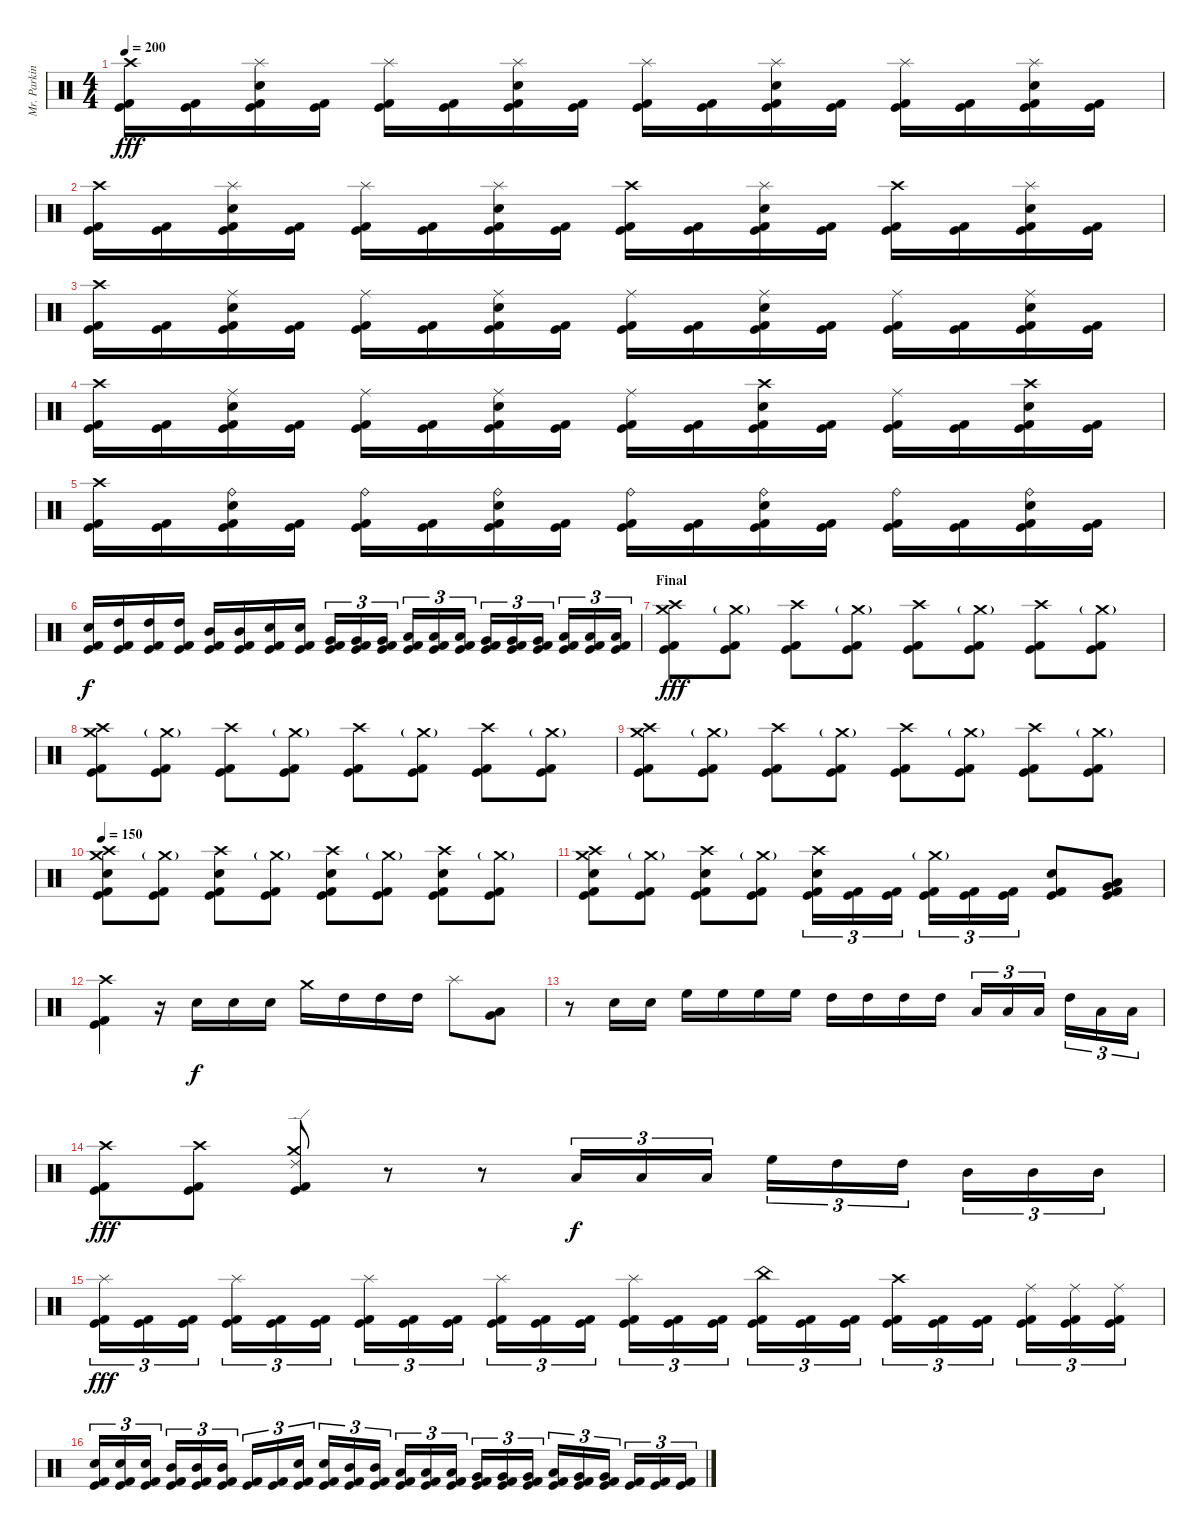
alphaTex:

\track ("Mr. Parkinson" "Mr. Parkin") {instrument percussion}
\staff {score}
\articulation defaults
\ts (4 4)
\tempo 200
\clef neutral
\ks c
("Crash high (hit)" "Kick (hit)" "Kick (hit) 2").16{dy fff} ("Kick (hit)" "Kick (hit) 2").16 ("Splash (hit)" "Electric Snare (hit)" "Kick (hit)" "Kick (hit) 2").16 ("Kick (hit)" "Kick (hit) 2").16 ("Splash (hit)" "Kick (hit)" "Kick (hit) 2").16 ("Kick (hit)" "Kick (hit) 2").16 ("Splash (hit)" "Electric Snare (hit)" "Kick (hit)" "Kick (hit) 2").16 ("Kick (hit)" "Kick (hit) 2").16 ("Splash (hit)" "Kick (hit)" "Kick (hit) 2").16 ("Kick (hit)" "Kick (hit) 2").16 ("Splash (hit)" "Electric Snare (hit)" "Kick (hit)" "Kick (hit) 2").16 ("Kick (hit)" "Kick (hit) 2").16 ("Splash (hit)" "Kick (hit)" "Kick (hit) 2").16 ("Kick (hit)" "Kick (hit) 2").16 ("Splash (hit)" "Electric Snare (hit)" "Kick (hit)" "Kick (hit) 2").16 ("Kick (hit)" "Kick (hit) 2").16 |
("Crash high (hit)" "Kick (hit)" "Kick (hit) 2").16 ("Kick (hit)" "Kick (hit) 2").16 ("Splash (hit)" "Electric Snare (hit)" "Kick (hit)" "Kick (hit) 2").16 ("Kick (hit)" "Kick (hit) 2").16 ("Splash (hit)" "Kick (hit)" "Kick (hit) 2").16 ("Kick (hit)" "Kick (hit) 2").16 ("Splash (hit)" "Electric Snare (hit)" "Kick (hit)" "Kick (hit) 2").16 ("Kick (hit)" "Kick (hit) 2").16 ("Crash high (hit)" "Kick (hit)" "Kick (hit) 2").16 ("Kick (hit)" "Kick (hit) 2").16 ("Splash (hit)" "Electric Snare (hit)" "Kick (hit)" "Kick (hit) 2").16 ("Kick (hit)" "Kick (hit) 2").16 ("Crash high (hit)" "Kick (hit)" "Kick (hit) 2").16 ("Kick (hit)" "Kick (hit) 2").16 ("Splash (hit)" "Electric Snare (hit)" "Kick (hit)" "Kick (hit) 2").16 ("Kick (hit)" "Kick (hit) 2").16 |
("Crash high (hit)" "Kick (hit)" "Kick (hit) 2").16 ("Kick (hit)" "Kick (hit) 2").16 ("Ride (middle)" "Electric Snare (hit)" "Kick (hit)" "Kick (hit) 2").16 ("Kick (hit)" "Kick (hit) 2").16 ("Ride (middle)" "Kick (hit)" "Kick (hit) 2").16 ("Kick (hit)" "Kick (hit) 2").16 ("Ride (middle)" "Electric Snare (hit)" "Kick (hit)" "Kick (hit) 2").16 ("Kick (hit)" "Kick (hit) 2").16 ("Ride (middle)" "Kick (hit)" "Kick (hit) 2").16 ("Kick (hit)" "Kick (hit) 2").16 ("Ride (middle)" "Electric Snare (hit)" "Kick (hit)" "Kick (hit) 2").16 ("Kick (hit)" "Kick (hit) 2").16 ("Ride (middle)" "Kick (hit)" "Kick (hit) 2").16 ("Kick (hit)" "Kick (hit) 2").16 ("Ride (middle)" "Electric Snare (hit)" "Kick (hit)" "Kick (hit) 2").16 ("Kick (hit)" "Kick (hit) 2").16 |
("Crash high (hit)" "Kick (hit)" "Kick (hit) 2").16 ("Kick (hit)" "Kick (hit) 2").16 ("Ride (middle)" "Electric Snare (hit)" "Kick (hit)" "Kick (hit) 2").16 ("Kick (hit)" "Kick (hit) 2").16 ("Ride (middle)" "Kick (hit)" "Kick (hit) 2").16 ("Kick (hit)" "Kick (hit) 2").16 ("Ride (middle)" "Electric Snare (hit)" "Kick (hit)" "Kick (hit) 2").16 ("Kick (hit)" "Kick (hit) 2").16 ("Ride (middle)" "Kick (hit)" "Kick (hit) 2").16 ("Kick (hit)" "Kick (hit) 2").16 ("Crash high (hit)" "Electric Snare (hit)" "Kick (hit)" "Kick (hit) 2").16 ("Kick (hit)" "Kick (hit) 2").16 ("Ride (middle)" "Kick (hit)" "Kick (hit) 2").16 ("Kick (hit)" "Kick (hit) 2").16 ("Crash high (hit)" "Electric Snare (hit)" "Kick (hit)" "Kick (hit) 2").16 ("Kick (hit)" "Kick (hit) 2").16 |
("Crash high (hit)" "Kick (hit)" "Kick (hit) 2").16 ("Kick (hit)" "Kick (hit) 2").16 ("Ride (bell)" "Electric Snare (hit)" "Kick (hit)" "Kick (hit) 2").16 ("Kick (hit)" "Kick (hit) 2").16 ("Ride (bell)" "Kick (hit)" "Kick (hit) 2").16 ("Kick (hit)" "Kick (hit) 2").16 ("Ride (bell)" "Electric Snare (hit)" "Kick (hit)" "Kick (hit) 2").16 ("Kick (hit)" "Kick (hit) 2").16 ("Ride (bell)" "Kick (hit)" "Kick (hit) 2").16 ("Kick (hit)" "Kick (hit) 2").16 ("Ride (bell)" "Electric Snare (hit)" "Kick (hit)" "Kick (hit) 2").16 ("Kick (hit)" "Kick (hit) 2").16 ("Ride (bell)" "Kick (hit)" "Kick (hit) 2").16 ("Kick (hit)" "Kick (hit) 2").16 ("Ride (bell)" "Electric Snare (hit)" "Kick (hit)" "Kick (hit) 2").16 ("Kick (hit)" "Kick (hit) 2").16 |
("Electric Snare (hit)" "Kick (hit)" "Kick (hit) 2").16{dy f} ("High Tom (hit)" "Kick (hit)" "Kick (hit) 2").16 ("High Tom (hit)" "Kick (hit)" "Kick (hit) 2").16 ("High Tom (hit)" "Kick (hit)" "Kick (hit) 2").16 ("Mid Tom (hit)" "Kick (hit)" "Kick (hit) 2").16 ("Mid Tom (hit)" "Kick (hit)" "Kick (hit) 2").16 ("Electric Snare (hit)" "Kick (hit)" "Kick (hit) 2").16 ("Electric Snare (hit)" "Kick (hit)" "Kick (hit) 2").16 ("Very Low Tom (hit)" "Kick (hit)" "Kick (hit) 2").16{tu (3 2)} ("Very Low Tom (hit)" "Kick (hit)" "Kick (hit) 2").16{tu (3 2)} ("Very Low Tom (hit)" "Kick (hit)" "Kick (hit) 2").16{tu (3 2)} ("Low Floor Tom (hit)" "Kick (hit)" "Kick (hit) 2").16{tu (3 2)} ("Low Floor Tom (hit)" "Kick (hit)" "Kick (hit) 2").16{tu (3 2)} ("Low Floor Tom (hit)" "Kick (hit)" "Kick (hit) 2").16{tu (3 2)} ("Very Low Tom (hit)" "Kick (hit)" "Kick (hit) 2").16{tu (3 2)} ("Very Low Tom (hit)" "Kick (hit)" "Kick (hit) 2").16{tu (3 2)} ("Very Low Tom (hit)" "Kick (hit)" "Kick (hit) 2").16{tu (3 2)} ("Low Floor Tom (hit)" "Kick (hit)" "Kick (hit) 2").16{tu (3 2)} ("Low Floor Tom (hit)" "Kick (hit)" "Kick (hit) 2").16{tu (3 2)} ("Low Floor Tom (hit)" "Kick (hit)" "Kick (hit) 2").16{tu (3 2)} |
\section ("" "Final")
("Crash medium (hit)" "Crash high (hit)" "Kick (hit)" "Kick (hit) 2").8{dy fff} ("Crash medium (hit)"{g} "Kick (hit)" "Kick (hit) 2").8 ("Crash high (hit)" "Kick (hit)" "Kick (hit) 2").8 ("Crash medium (hit)"{g} "Kick (hit)" "Kick (hit) 2").8 ("Crash high (hit)" "Kick (hit)" "Kick (hit) 2").8 ("Crash medium (hit)"{g} "Kick (hit)" "Kick (hit) 2").8 ("Crash high (hit)" "Kick (hit)" "Kick (hit) 2").8 ("Crash medium (hit)"{g} "Kick (hit)" "Kick (hit) 2").8 |
("Crash medium (hit)" "Crash high (hit)" "Kick (hit)" "Kick (hit) 2").8 ("Crash medium (hit)"{g} "Kick (hit)" "Kick (hit) 2").8 ("Crash high (hit)" "Kick (hit)" "Kick (hit) 2").8 ("Crash medium (hit)"{g} "Kick (hit)" "Kick (hit) 2").8 ("Crash high (hit)" "Kick (hit)" "Kick (hit) 2").8 ("Crash medium (hit)"{g} "Kick (hit)" "Kick (hit) 2").8 ("Crash high (hit)" "Kick (hit)" "Kick (hit) 2").8 ("Crash medium (hit)"{g} "Kick (hit)" "Kick (hit) 2").8 |
("Crash medium (hit)" "Crash high (hit)" "Kick (hit)" "Kick (hit) 2").8 ("Crash medium (hit)"{g} "Kick (hit)" "Kick (hit) 2").8 ("Crash high (hit)" "Kick (hit)" "Kick (hit) 2").8 ("Crash medium (hit)"{g} "Kick (hit)" "Kick (hit) 2").8 ("Crash high (hit)" "Kick (hit)" "Kick (hit) 2").8 ("Crash medium (hit)"{g} "Kick (hit)" "Kick (hit) 2").8 ("Crash high (hit)" "Kick (hit)" "Kick (hit) 2").8 ("Crash medium (hit)"{g} "Kick (hit)" "Kick (hit) 2").8 |
\tempo 150
("Crash medium (hit)" "Crash high (hit)" "Electric Snare (hit)" "Kick (hit)" "Kick (hit) 2").8 ("Crash medium (hit)"{g} "Kick (hit)" "Kick (hit) 2").8 ("Crash high (hit)" "Electric Snare (hit)" "Kick (hit)" "Kick (hit) 2").8 ("Crash medium (hit)"{g} "Kick (hit)" "Kick (hit) 2").8 ("Crash high (hit)" "Electric Snare (hit)" "Kick (hit)" "Kick (hit) 2").8 ("Crash medium (hit)"{g} "Kick (hit)" "Kick (hit) 2").8 ("Crash high (hit)" "Electric Snare (hit)" "Kick (hit)" "Kick (hit) 2").8 ("Crash medium (hit)"{g} "Kick (hit)" "Kick (hit) 2").8 |
("Crash medium (hit)" "Crash high (hit)" "Electric Snare (hit)" "Kick (hit)" "Kick (hit) 2").8 ("Crash medium (hit)"{g} "Kick (hit)" "Kick (hit) 2").8 ("Crash high (hit)" "Electric Snare (hit)" "Kick (hit)" "Kick (hit) 2").8 ("Crash medium (hit)"{g} "Kick (hit)" "Kick (hit) 2").8 ("Crash high (hit)" "Electric Snare (hit)" "Kick (hit)" "Kick (hit) 2").16{tu (3 2)} ("Kick (hit)" "Kick (hit) 2").16{tu (3 2)} ("Kick (hit)" "Kick (hit) 2").16{tu (3 2)} ("Crash medium (hit)"{g} "Kick (hit)" "Kick (hit) 2").16{tu (3 2)} ("Kick (hit)" "Kick (hit) 2").16{tu (3 2)} ("Kick (hit)" "Kick (hit) 2").16{tu (3 2)} ("Electric Snare (hit)" "Kick (hit)" "Kick (hit) 2").8 ("Very Low Tom (hit)" "Low Floor Tom (hit)" "Kick (hit)" "Kick (hit) 2").8 |
("Crash high (hit)" "Kick (hit)" "Kick (hit) 2").4 r.16 "Electric Snare (hit)".16{dy f} "Electric Snare (hit)".16 "Electric Snare (hit)".16 "Crash medium (hit)".16 "High Tom (hit)".16 "High Tom (hit)".16 "High Tom (hit)".16 "Splash (hit)".8 ("Low Tom (hit)" "Very Low Tom (hit)").8 |
r.8 "Electric Snare (hit)".16 "Electric Snare (hit)".16 "High Floor Tom (hit)".16 "High Floor Tom (hit)".16 "High Floor Tom (hit)".16 "High Floor Tom (hit)".16 "High Tom (hit)".16 "High Tom (hit)".16 "High Tom (hit)".16 "High Tom (hit)".16 "Low Tom (hit)".16{tu (3 2)} "Low Tom (hit)".16{tu (3 2)} "Low Tom (hit)".16{tu (3 2)} "High Tom (hit)".16{tu (3 2)} "Low Tom (hit)".16{tu (3 2)} "Low Tom (hit)".16{tu (3 2)} |
("Crash high (hit)" "Kick (hit)" "Kick (hit) 2").8{dy fff} ("Crash high (hit)" "Kick (hit)" "Kick (hit) 2").8 ("Crash medium (hit)" "Ride (edge) 2" "Kick (hit)" "Kick (hit) 2").8 r.8 r.8 "Low Tom (hit)".16{tu (3 2) dy f} "Low Tom (hit)".16{tu (3 2)} "Low Tom (hit)".16{tu (3 2)} "High Floor Tom (hit)".16{tu (3 2)} "High Tom (hit)".16{tu (3 2)} "High Tom (hit)".16{tu (3 2)} "Mid Tom (hit)".16{tu (3 2)} "Mid Tom (hit)".16{tu (3 2)} "Mid Tom (hit)".16{tu (3 2)} |
("Splash (hit)" "Kick (hit)" "Kick (hit) 2").16{tu (3 2) dy fff} ("Kick (hit)" "Kick (hit) 2").16{tu (3 2)} ("Kick (hit)" "Kick (hit) 2").16{tu (3 2)} ("Splash (hit)" "Kick (hit)" "Kick (hit) 2").16{tu (3 2)} ("Kick (hit)" "Kick (hit) 2").16{tu (3 2)} ("Kick (hit)" "Kick (hit) 2").16{tu (3 2)} ("Splash (hit)" "Kick (hit)" "Kick (hit) 2").16{tu (3 2)} ("Kick (hit)" "Kick (hit) 2").16{tu (3 2)} ("Kick (hit)" "Kick (hit) 2").16{tu (3 2)} ("Splash (hit)" "Kick (hit)" "Kick (hit) 2").16{tu (3 2)} ("Kick (hit)" "Kick (hit) 2").16{tu (3 2)} ("Kick (hit)" "Kick (hit) 2").16{tu (3 2)} ("Splash (hit)" "Kick (hit)" "Kick (hit) 2").16{tu (3 2)} ("Kick (hit)" "Kick (hit) 2").16{tu (3 2)} ("Kick (hit)" "Kick (hit) 2").16{tu (3 2)} ("China (hit)" "Kick (hit)" "Kick (hit) 2").16{tu (3 2)} ("Kick (hit)" "Kick (hit) 2").16{tu (3 2)} ("Kick (hit)" "Kick (hit) 2").16{tu (3 2)} ("Crash high (hit)" "Kick (hit)" "Kick (hit) 2").16{tu (3 2)} ("Kick (hit)" "Kick (hit) 2").16{tu (3 2)} ("Kick (hit)" "Kick (hit) 2").16{tu (3 2)} ("Ride (middle)" "Kick (hit)" "Kick (hit) 2").16{tu (3 2)} ("Ride (middle)" "Kick (hit)" "Kick (hit) 2").16{tu (3 2)} ("Ride (middle)" "Kick (hit)" "Kick (hit) 2").16{tu (3 2)} |
("Electric Snare (hit)" "Kick (hit)" "Kick (hit) 2").16{tu (3 2)} ("Electric Snare (hit)" "Kick (hit)" "Kick (hit) 2").16{tu (3 2)} ("Electric Snare (hit)" "Kick (hit)" "Kick (hit) 2").16{tu (3 2)} ("Mid Tom (hit)" "Kick (hit)" "Kick (hit) 2").16{tu (3 2)} ("Mid Tom (hit)" "Kick (hit)" "Kick (hit) 2").16{tu (3 2)} ("Mid Tom (hit)" "Kick (hit)" "Kick (hit) 2").16{tu (3 2)} ("Kick (hit)" "Kick (hit) 2").16{tu (3 2)} ("Kick (hit)" "Kick (hit) 2").16{tu (3 2)} ("Electric Snare (hit)" "Kick (hit)" "Kick (hit) 2").16{tu (3 2)} ("Electric Snare (hit)" "Kick (hit)" "Kick (hit) 2").16{tu (3 2)} ("Mid Tom (hit)" "Kick (hit)" "Kick (hit) 2").16{tu (3 2)} ("Mid Tom (hit)" "Kick (hit)" "Kick (hit) 2").16{tu (3 2)} ("Low Tom (hit)" "Kick (hit)" "Kick (hit) 2").16{tu (3 2)} ("Low Tom (hit)" "Kick (hit)" "Kick (hit) 2").16{tu (3 2)} ("Low Tom (hit)" "Kick (hit)" "Kick (hit) 2").16{tu (3 2)} ("Very Low Tom (hit)" "Kick (hit)" "Kick (hit) 2").16{tu (3 2)} ("Very Low Tom (hit)" "Kick (hit)" "Kick (hit) 2").16{tu (3 2)} ("Very Low Tom (hit)" "Kick (hit)" "Kick (hit) 2").16{tu (3 2)} ("Low Floor Tom (hit)" "Kick (hit)" "Kick (hit) 2").16{tu (3 2)} ("Very Low Tom (hit)" "Kick (hit)" "Kick (hit) 2").16{tu (3 2)} ("Very Low Tom (hit)" "Kick (hit)" "Kick (hit) 2").16{tu (3 2)} ("Kick (hit)" "Kick (hit) 2").16{tu (3 2)} ("Kick (hit)" "Kick (hit) 2").16{tu (3 2)} ("Kick (hit)" "Kick (hit) 2").16{tu (3 2)}
